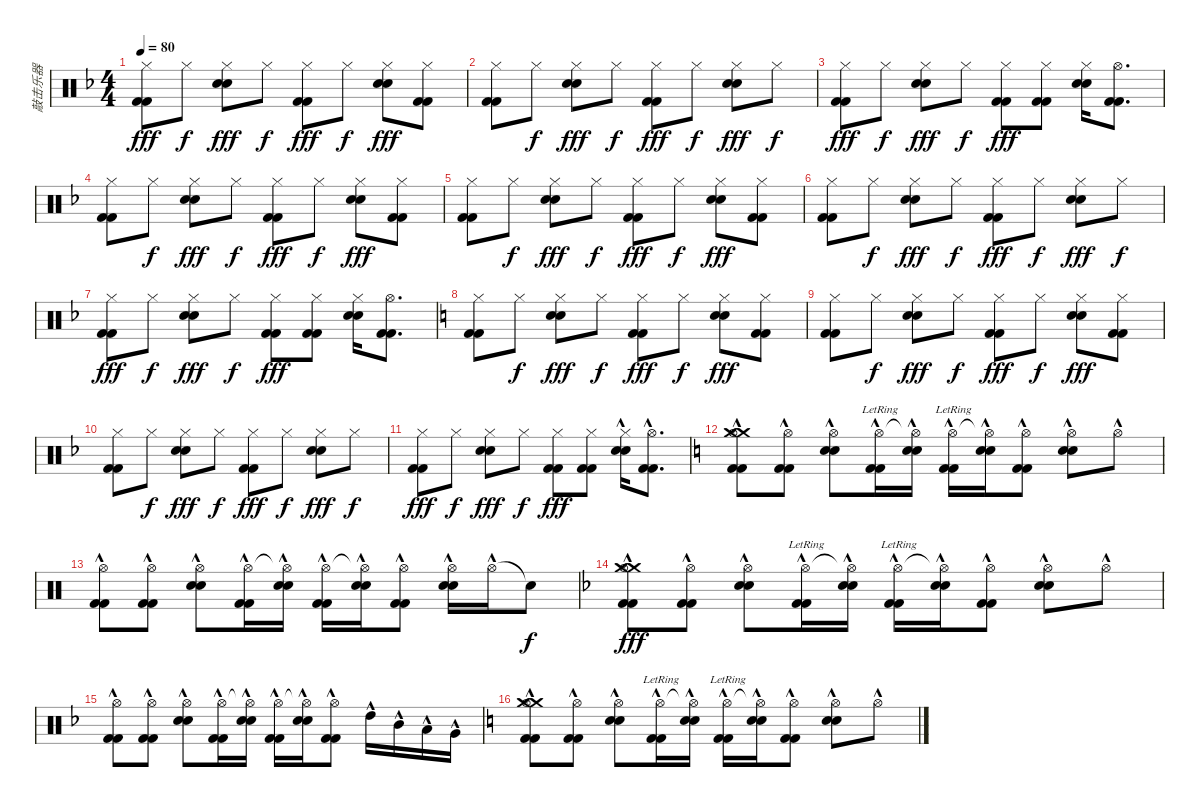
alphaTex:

\track ("敲击乐器" "敲击乐器") {instrument percussion}
\staff {score}
\articulation defaults
\ts (4 4)
\tempo 80
\clef neutral
\ks f
("Hi-Hat (closed)" "Kick (hit) 2" "Kick (hit) 2").8{dy fff} "Hi-Hat (closed)".8{dy f} ("Hi-Hat (closed)" "Electric Snare (hit)" "Electric Snare (hit)").8{dy fff} "Hi-Hat (closed)".8{dy f} ("Hi-Hat (closed)" "Kick (hit) 2" "Kick (hit) 2").8{dy fff} "Hi-Hat (closed)".8{dy f} ("Hi-Hat (closed)" "Electric Snare (hit)" "Electric Snare (hit)").8{dy fff} ("Hi-Hat (closed)" "Kick (hit) 2" "Kick (hit) 2").8 |
("Hi-Hat (closed)" "Kick (hit) 2" "Kick (hit) 2").8 "Hi-Hat (closed)".8{dy f} ("Hi-Hat (closed)" "Electric Snare (hit)" "Electric Snare (hit)").8{dy fff} "Hi-Hat (closed)".8{dy f} ("Hi-Hat (closed)" "Kick (hit) 2" "Kick (hit) 2").8{dy fff} "Hi-Hat (closed)".8{dy f} ("Hi-Hat (closed)" "Electric Snare (hit)" "Electric Snare (hit)").8{dy fff} "Hi-Hat (closed)".8{dy f} |
("Hi-Hat (closed)" "Kick (hit) 2" "Kick (hit) 2").8{dy fff} "Hi-Hat (closed)".8{dy f} ("Hi-Hat (closed)" "Electric Snare (hit)" "Electric Snare (hit)").8{dy fff} "Hi-Hat (closed)".8{dy f} ("Hi-Hat (closed)" "Kick (hit) 2" "Kick (hit) 2").8{dy fff} ("Hi-Hat (closed)" "Kick (hit) 2" "Kick (hit) 2").8 ("Hi-Hat (closed)" "Electric Snare (hit)" "Electric Snare (hit)").16 ("Hi-Hat (open)" "Kick (hit) 2" "Kick (hit) 2").8{d} |
("Hi-Hat (closed)" "Kick (hit) 2" "Kick (hit) 2").8 "Hi-Hat (closed)".8{dy f} ("Hi-Hat (closed)" "Electric Snare (hit)" "Electric Snare (hit)").8{dy fff} "Hi-Hat (closed)".8{dy f} ("Hi-Hat (closed)" "Kick (hit) 2" "Kick (hit) 2").8{dy fff} "Hi-Hat (closed)".8{dy f} ("Hi-Hat (closed)" "Electric Snare (hit)" "Electric Snare (hit)").8{dy fff} ("Hi-Hat (closed)" "Kick (hit) 2" "Kick (hit) 2").8 |
("Hi-Hat (closed)" "Kick (hit) 2" "Kick (hit) 2").8 "Hi-Hat (closed)".8{dy f} ("Hi-Hat (closed)" "Electric Snare (hit)" "Electric Snare (hit)").8{dy fff} "Hi-Hat (closed)".8{dy f} ("Hi-Hat (closed)" "Kick (hit) 2" "Kick (hit) 2").8{dy fff} "Hi-Hat (closed)".8{dy f} ("Hi-Hat (closed)" "Electric Snare (hit)" "Electric Snare (hit)").8{dy fff} ("Hi-Hat (closed)" "Kick (hit) 2" "Kick (hit) 2").8 |
("Hi-Hat (closed)" "Kick (hit) 2" "Kick (hit) 2").8 "Hi-Hat (closed)".8{dy f} ("Hi-Hat (closed)" "Electric Snare (hit)" "Electric Snare (hit)").8{dy fff} "Hi-Hat (closed)".8{dy f} ("Hi-Hat (closed)" "Kick (hit) 2" "Kick (hit) 2").8{dy fff} "Hi-Hat (closed)".8{dy f} ("Hi-Hat (closed)" "Electric Snare (hit)" "Electric Snare (hit)").8{dy fff} "Hi-Hat (closed)".8{dy f} |
("Hi-Hat (closed)" "Kick (hit) 2" "Kick (hit) 2").8{dy fff} "Hi-Hat (closed)".8{dy f} ("Hi-Hat (closed)" "Electric Snare (hit)" "Electric Snare (hit)").8{dy fff} "Hi-Hat (closed)".8{dy f} ("Hi-Hat (closed)" "Kick (hit) 2" "Kick (hit) 2").8{dy fff} ("Hi-Hat (closed)" "Kick (hit) 2" "Kick (hit) 2").8 ("Hi-Hat (closed)" "Electric Snare (hit)" "Electric Snare (hit)").16 ("Hi-Hat (open)" "Kick (hit) 2" "Kick (hit) 2").8{d} |
\ks c
("Hi-Hat (closed)" "Kick (hit) 2" "Kick (hit) 2").8 "Hi-Hat (closed)".8{dy f} ("Hi-Hat (closed)" "Electric Snare (hit)" "Electric Snare (hit)").8{dy fff} "Hi-Hat (closed)".8{dy f} ("Hi-Hat (closed)" "Kick (hit) 2" "Kick (hit) 2").8{dy fff} "Hi-Hat (closed)".8{dy f} ("Hi-Hat (closed)" "Electric Snare (hit)" "Electric Snare (hit)").8{dy fff} ("Hi-Hat (closed)" "Kick (hit) 2" "Kick (hit) 2").8 |
("Hi-Hat (closed)" "Kick (hit) 2" "Kick (hit) 2").8 "Hi-Hat (closed)".8{dy f} ("Hi-Hat (closed)" "Electric Snare (hit)" "Electric Snare (hit)").8{dy fff} "Hi-Hat (closed)".8{dy f} ("Hi-Hat (closed)" "Kick (hit) 2" "Kick (hit) 2").8{dy fff} "Hi-Hat (closed)".8{dy f} ("Hi-Hat (closed)" "Electric Snare (hit)" "Electric Snare (hit)").8{dy fff} ("Hi-Hat (closed)" "Kick (hit) 2" "Kick (hit) 2").8 |
\ks f
("Hi-Hat (closed)" "Kick (hit) 2" "Kick (hit) 2").8 "Hi-Hat (closed)".8{dy f} ("Hi-Hat (closed)" "Electric Snare (hit)" "Electric Snare (hit)").8{dy fff} "Hi-Hat (closed)".8{dy f} ("Hi-Hat (closed)" "Kick (hit) 2" "Kick (hit) 2").8{dy fff} "Hi-Hat (closed)".8{dy f} ("Hi-Hat (closed)" "Electric Snare (hit)" "Electric Snare (hit)").8{dy fff} "Hi-Hat (closed)".8{dy f} |
("Hi-Hat (closed)" "Kick (hit) 2" "Kick (hit) 2").8{dy fff} "Hi-Hat (closed)".8{dy f} ("Hi-Hat (closed)" "Electric Snare (hit)" "Electric Snare (hit)").8{dy fff} "Hi-Hat (closed)".8{dy f} ("Hi-Hat (closed)" "Kick (hit) 2" "Kick (hit) 2").8{dy fff} ("Hi-Hat (closed)" "Kick (hit) 2" "Kick (hit) 2").8 ("Hi-Hat (closed)"{hac} "Electric Snare (hit)"{hac} "Electric Snare (hit)"{hac}).16 ("Hi-Hat (open)"{hac} "Kick (hit) 2"{hac} "Kick (hit) 2"{hac}).8{d} |
\ks c
("Crash medium (hit)"{hac} "Crash medium (hit)"{hac} "Hi-Hat (open)"{hac} "Kick (hit) 2"{hac} "Kick (hit) 2"{hac}).8 ("Hi-Hat (open)"{hac} "Kick (hit) 2"{hac} "Kick (hit) 2"{hac}).8 ("Hi-Hat (open)"{hac} "Electric Snare (hit)"{hac} "Electric Snare (hit)"{hac}).8 ("Hi-Hat (open)"{hac lr} "Kick (hit) 2"{hac} "Kick (hit) 2"{hac}).16 ("Hi-Hat (open)"{t} "Electric Snare (hit)"{hac} "Electric Snare (hit)"{hac}).16 ("Hi-Hat (open)"{hac lr} "Kick (hit) 2"{hac} "Kick (hit) 2"{hac}).16 ("Hi-Hat (open)"{t} "Electric Snare (hit)"{hac} "Electric Snare (hit)"{hac}).16 ("Hi-Hat (open)"{hac} "Kick (hit) 2"{hac} "Kick (hit) 2"{hac}).8 ("Hi-Hat (open)"{hac} "Electric Snare (hit)"{hac} "Electric Snare (hit)"{hac}).8 "Hi-Hat (open)"{hac}.8 |
("Hi-Hat (open)"{hac} "Kick (hit) 2"{hac} "Kick (hit) 2"{hac}).8 ("Hi-Hat (open)"{hac} "Kick (hit) 2"{hac} "Kick (hit) 2"{hac}).8 ("Hi-Hat (open)"{hac} "Electric Snare (hit)"{hac} "Electric Snare (hit)"{hac}).8 ("Hi-Hat (open)"{hac} "Kick (hit) 2"{hac} "Kick (hit) 2"{hac}).16 ("Hi-Hat (open)"{t} "Electric Snare (hit)"{hac} "Electric Snare (hit)"{hac}).16 ("Hi-Hat (open)"{hac} "Kick (hit) 2"{hac} "Kick (hit) 2"{hac}).16 ("Hi-Hat (open)"{t} "Electric Snare (hit)"{hac} "Electric Snare (hit)"{hac}).16 ("Hi-Hat (open)"{hac} "Kick (hit) 2"{hac} "Kick (hit) 2"{hac}).8 ("Hi-Hat (open)"{hac} "Electric Snare (hit)"{hac} "Electric Snare (hit)"{hac}).16 "Hi-Hat (open)"{hac}.16 "Snare (hit)"{t}.8{dy f} |
\ks f
("Crash medium (hit)"{hac} "Crash medium (hit)"{hac} "Hi-Hat (open)"{hac} "Kick (hit) 2"{hac} "Kick (hit) 2"{hac}).8{dy fff} ("Hi-Hat (open)"{hac} "Kick (hit) 2"{hac} "Kick (hit) 2"{hac}).8 ("Hi-Hat (open)"{hac} "Electric Snare (hit)"{hac} "Electric Snare (hit)"{hac}).8 ("Hi-Hat (open)"{hac lr} "Kick (hit) 2"{hac} "Kick (hit) 2"{hac}).16 ("Hi-Hat (open)"{t} "Electric Snare (hit)"{hac} "Electric Snare (hit)"{hac}).16 ("Hi-Hat (open)"{hac lr} "Kick (hit) 2"{hac} "Kick (hit) 2"{hac}).16 ("Hi-Hat (open)"{t} "Electric Snare (hit)"{hac} "Electric Snare (hit)"{hac}).16 ("Hi-Hat (open)"{hac} "Kick (hit) 2"{hac} "Kick (hit) 2"{hac}).8 ("Hi-Hat (open)"{hac} "Electric Snare (hit)"{hac} "Electric Snare (hit)"{hac}).8 "Hi-Hat (open)"{hac}.8 |
("Hi-Hat (open)"{hac} "Kick (hit) 2"{hac} "Kick (hit) 2"{hac}).8 ("Hi-Hat (open)"{hac} "Kick (hit) 2"{hac} "Kick (hit) 2"{hac}).8 ("Hi-Hat (open)"{hac} "Electric Snare (hit)"{hac} "Electric Snare (hit)"{hac}).8 ("Hi-Hat (open)"{hac} "Kick (hit) 2"{hac} "Kick (hit) 2"{hac}).16 ("Hi-Hat (open)"{t} "Electric Snare (hit)"{hac} "Electric Snare (hit)"{hac}).16 ("Hi-Hat (open)"{hac} "Kick (hit) 2"{hac} "Kick (hit) 2"{hac}).16 ("Hi-Hat (open)"{t} "Electric Snare (hit)"{hac} "Electric Snare (hit)"{hac}).16 ("Hi-Hat (open)"{hac} "Kick (hit) 2"{hac} "Kick (hit) 2"{hac}).8 "High Tom (hit)"{hac}.16 "Mid Tom (hit)"{hac}.16 "Low Tom (hit)"{hac}.16 "Very Low Tom (hit)"{hac}.16 |
\ks c
("Crash medium (hit)"{hac} "Crash medium (hit)"{hac} "Hi-Hat (open)"{hac} "Kick (hit) 2"{hac} "Kick (hit) 2"{hac}).8 ("Hi-Hat (open)"{hac} "Kick (hit) 2"{hac} "Kick (hit) 2"{hac}).8 ("Hi-Hat (open)"{hac} "Electric Snare (hit)"{hac} "Electric Snare (hit)"{hac}).8 ("Hi-Hat (open)"{hac lr} "Kick (hit) 2"{hac} "Kick (hit) 2"{hac}).16 ("Hi-Hat (open)"{t} "Electric Snare (hit)"{hac} "Electric Snare (hit)"{hac}).16 ("Hi-Hat (open)"{hac lr} "Kick (hit) 2"{hac} "Kick (hit) 2"{hac}).16 ("Hi-Hat (open)"{t} "Electric Snare (hit)"{hac} "Electric Snare (hit)"{hac}).16 ("Hi-Hat (open)"{hac} "Kick (hit) 2"{hac} "Kick (hit) 2"{hac}).8 ("Hi-Hat (open)"{hac} "Electric Snare (hit)"{hac} "Electric Snare (hit)"{hac}).8 "Hi-Hat (open)"{hac}.8
